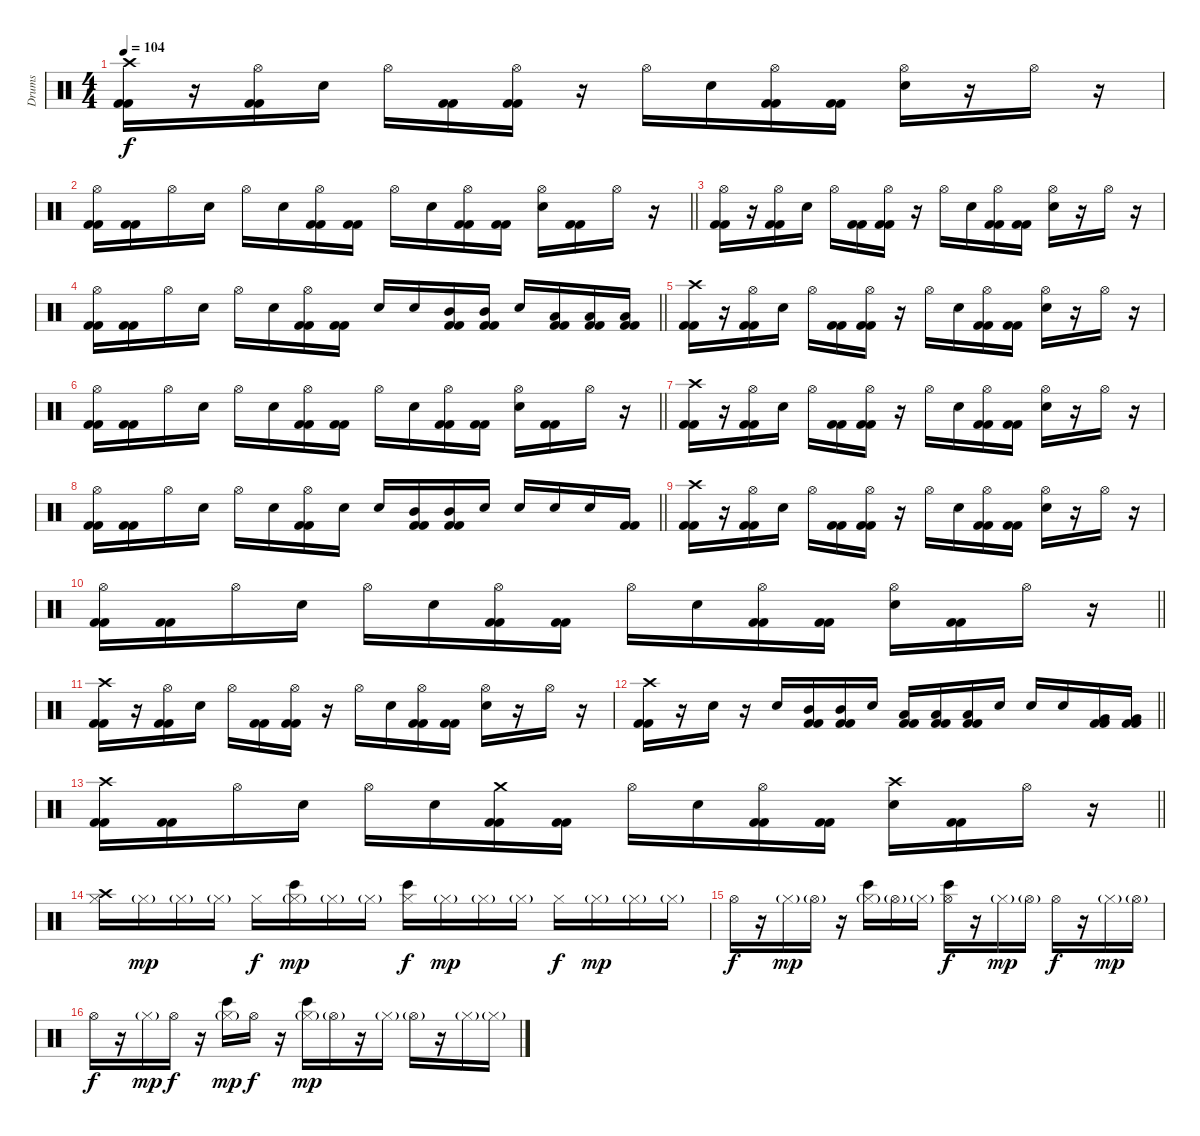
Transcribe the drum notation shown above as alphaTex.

\track ("Drums" "Drums") {instrument percussion}
\staff {score}
\articulation defaults
\ts (4 4)
\tempo 104
\clef neutral
\ks c
("Crash high (hit)" "Kick (hit) 2" "Kick (hit) 2").16{dy f} r.16 ("Hi-Hat (open)" "Kick (hit) 2" "Kick (hit) 2").16 "Snare (hit) 2".16 "Hi-Hat (open)".16 ("Kick (hit) 2" "Kick (hit) 2").16 ("Hi-Hat (open)" "Kick (hit) 2" "Kick (hit) 2").16 r.16 "Hi-Hat (open)".16 "Snare (hit) 2".16 ("Hi-Hat (open)" "Kick (hit) 2" "Kick (hit) 2").16 ("Kick (hit) 2" "Kick (hit) 2").16 ("Hi-Hat (open)" "Snare (hit) 2").16 r.16 "Hi-Hat (open)".16 r.16 |
\barLineRight lightlight
("Hi-Hat (open)" "Kick (hit) 2" "Kick (hit) 2").16 ("Kick (hit) 2" "Kick (hit) 2").16 "Hi-Hat (open)".16 "Snare (hit) 2".16 "Hi-Hat (open)".16 "Snare (hit) 2".16 ("Hi-Hat (open)" "Kick (hit) 2" "Kick (hit) 2").16 ("Kick (hit) 2" "Kick (hit) 2").16 "Hi-Hat (open)".16 "Snare (hit) 2".16 ("Hi-Hat (open)" "Kick (hit) 2" "Kick (hit) 2").16 ("Kick (hit) 2" "Kick (hit) 2").16 ("Hi-Hat (open)" "Snare (hit) 2").16 ("Kick (hit) 2" "Kick (hit) 2").16 "Hi-Hat (open)".16 r.16 |
("Hi-Hat (open)" "Kick (hit) 2" "Kick (hit) 2").16 r.16 ("Hi-Hat (open)" "Kick (hit) 2" "Kick (hit) 2").16 "Snare (hit) 2".16 "Hi-Hat (open)".16 ("Kick (hit) 2" "Kick (hit) 2").16 ("Hi-Hat (open)" "Kick (hit) 2" "Kick (hit) 2").16 r.16 "Hi-Hat (open)".16 "Snare (hit) 2".16 ("Hi-Hat (open)" "Kick (hit) 2" "Kick (hit) 2").16 ("Kick (hit) 2" "Kick (hit) 2").16 ("Hi-Hat (open)" "Snare (hit) 2").16 r.16 "Hi-Hat (open)".16 r.16 |
\barLineRight lightlight
("Hi-Hat (open)" "Kick (hit) 2" "Kick (hit) 2").16 ("Kick (hit) 2" "Kick (hit) 2").16 "Hi-Hat (open)".16 "Snare (hit) 2".16 "Hi-Hat (open)".16 "Snare (hit) 2".16 ("Hi-Hat (open)" "Kick (hit) 2" "Kick (hit) 2").16 ("Kick (hit) 2" "Kick (hit) 2").16 "Snare (hit) 2".16 "Snare (hit) 2".16 ("Mid Tom (hit)" "Kick (hit) 2" "Kick (hit) 2").16 ("Mid Tom (hit)" "Kick (hit) 2" "Kick (hit) 2").16 "Snare (hit) 2".16 ("Low Tom (hit)" "Kick (hit) 2" "Kick (hit) 2").16 ("Low Tom (hit)" "Kick (hit) 2" "Kick (hit) 2").16 ("Low Tom (hit)" "Kick (hit) 2" "Kick (hit) 2").16 |
("Crash high (hit)" "Kick (hit) 2" "Kick (hit) 2").16 r.16 ("Hi-Hat (open)" "Kick (hit) 2" "Kick (hit) 2").16 "Snare (hit) 2".16 "Hi-Hat (open)".16 ("Kick (hit) 2" "Kick (hit) 2").16 ("Hi-Hat (open)" "Kick (hit) 2" "Kick (hit) 2").16 r.16 "Hi-Hat (open)".16 "Snare (hit) 2".16 ("Hi-Hat (open)" "Kick (hit) 2" "Kick (hit) 2").16 ("Kick (hit) 2" "Kick (hit) 2").16 ("Hi-Hat (open)" "Snare (hit) 2").16 r.16 "Hi-Hat (open)".16 r.16 |
\barLineRight lightlight
("Hi-Hat (open)" "Kick (hit) 2" "Kick (hit) 2").16 ("Kick (hit) 2" "Kick (hit) 2").16 "Hi-Hat (open)".16 "Snare (hit) 2".16 "Hi-Hat (open)".16 "Snare (hit) 2".16 ("Hi-Hat (open)" "Kick (hit) 2" "Kick (hit) 2").16 ("Kick (hit) 2" "Kick (hit) 2").16 "Hi-Hat (open)".16 "Snare (hit) 2".16 ("Hi-Hat (open)" "Kick (hit) 2" "Kick (hit) 2").16 ("Kick (hit) 2" "Kick (hit) 2").16 ("Hi-Hat (open)" "Snare (hit) 2").16 ("Kick (hit) 2" "Kick (hit) 2").16 "Hi-Hat (open)".16 r.16 |
("Crash high (hit)" "Kick (hit) 2" "Kick (hit) 2").16 r.16 ("Hi-Hat (open)" "Kick (hit) 2" "Kick (hit) 2").16 "Snare (hit) 2".16 "Hi-Hat (open)".16 ("Kick (hit) 2" "Kick (hit) 2").16 ("Hi-Hat (open)" "Kick (hit) 2" "Kick (hit) 2").16 r.16 "Hi-Hat (open)".16 "Snare (hit) 2".16 ("Hi-Hat (open)" "Kick (hit) 2" "Kick (hit) 2").16 ("Kick (hit) 2" "Kick (hit) 2").16 ("Hi-Hat (open)" "Snare (hit) 2").16 r.16 "Hi-Hat (open)".16 r.16 |
\barLineRight lightlight
("Hi-Hat (open)" "Kick (hit) 2" "Kick (hit) 2").16 ("Kick (hit) 2" "Kick (hit) 2").16 "Hi-Hat (open)".16 "Snare (hit) 2".16 "Hi-Hat (open)".16 "Snare (hit) 2".16 ("Hi-Hat (open)" "Kick (hit) 2" "Kick (hit) 2").16 "Snare (hit) 2".16 "Snare (hit) 2".16 ("Mid Tom (hit)" "Kick (hit) 2" "Kick (hit) 2").16 ("Mid Tom (hit)" "Kick (hit) 2" "Kick (hit) 2").16 "Snare (hit) 2".16 "Snare (hit) 2".16 "Snare (hit) 2".16 "Snare (hit) 2".16 ("Kick (hit) 2" "Kick (hit) 2").16 |
("Crash high (hit)" "Kick (hit) 2" "Kick (hit) 2").16 r.16 ("Hi-Hat (open)" "Kick (hit) 2" "Kick (hit) 2").16 "Snare (hit) 2".16 "Hi-Hat (open)".16 ("Kick (hit) 2" "Kick (hit) 2").16 ("Hi-Hat (open)" "Kick (hit) 2" "Kick (hit) 2").16 r.16 "Hi-Hat (open)".16 "Snare (hit) 2".16 ("Hi-Hat (open)" "Kick (hit) 2" "Kick (hit) 2").16 ("Kick (hit) 2" "Kick (hit) 2").16 ("Hi-Hat (open)" "Snare (hit) 2").16 r.16 "Hi-Hat (open)".16 r.16 |
\barLineRight lightlight
("Hi-Hat (open)" "Kick (hit) 2" "Kick (hit) 2").16 ("Kick (hit) 2" "Kick (hit) 2").16 "Hi-Hat (open)".16 "Snare (hit) 2".16 "Hi-Hat (open)".16 "Snare (hit) 2".16 ("Hi-Hat (open)" "Kick (hit) 2" "Kick (hit) 2").16 ("Kick (hit) 2" "Kick (hit) 2").16 "Hi-Hat (open)".16 "Snare (hit) 2".16 ("Hi-Hat (open)" "Kick (hit) 2" "Kick (hit) 2").16 ("Kick (hit) 2" "Kick (hit) 2").16 ("Hi-Hat (open)" "Snare (hit) 2").16 ("Kick (hit) 2" "Kick (hit) 2").16 "Hi-Hat (open)".16 r.16 |
("Crash high (hit)" "Kick (hit) 2" "Kick (hit) 2").16 r.16 ("Hi-Hat (open)" "Kick (hit) 2" "Kick (hit) 2").16 "Snare (hit) 2".16 "Hi-Hat (open)".16 ("Kick (hit) 2" "Kick (hit) 2").16 ("Hi-Hat (open)" "Kick (hit) 2" "Kick (hit) 2").16 r.16 "Hi-Hat (open)".16 "Snare (hit) 2".16 ("Hi-Hat (open)" "Kick (hit) 2" "Kick (hit) 2").16 ("Kick (hit) 2" "Kick (hit) 2").16 ("Hi-Hat (open)" "Snare (hit) 2").16 r.16 "Hi-Hat (open)".16 r.16 |
\barLineRight lightlight
("Crash high (hit)" "Kick (hit) 2" "Kick (hit) 2").16 r.16 "Snare (hit) 2".16 r.16 "Snare (hit) 2".16 ("Mid Tom (hit)" "Kick (hit) 2" "Kick (hit) 2").16 ("Mid Tom (hit)" "Kick (hit) 2" "Kick (hit) 2").16 "Snare (hit) 2".16 ("Low Tom (hit)" "Kick (hit) 2" "Kick (hit) 2").16 ("Low Tom (hit)" "Kick (hit) 2" "Kick (hit) 2").16 ("Low Tom (hit)" "Kick (hit) 2" "Kick (hit) 2").16 "Snare (hit) 2".16 "Snare (hit) 2".16 "Snare (hit) 2".16 ("Very Low Tom (hit)" "Kick (hit) 2" "Kick (hit) 2").16 ("Very Low Tom (hit)" "Kick (hit) 2" "Kick (hit) 2").16 |
\barLineRight lightlight
("Crash high (hit)" "Kick (hit) 2" "Kick (hit) 2").16 ("Kick (hit) 2" "Kick (hit) 2").16 "Hi-Hat (open)".16 "Snare (hit) 2".16 "Hi-Hat (open)".16 "Snare (hit) 2".16 ("Crash medium (hit)" "Kick (hit) 2" "Kick (hit) 2").16 ("Kick (hit) 2" "Kick (hit) 2").16 "Hi-Hat (open)".16 "Snare (hit) 2".16 ("Hi-Hat (open)" "Kick (hit) 2" "Kick (hit) 2").16 ("Kick (hit) 2" "Kick (hit) 2").16 ("Crash high (hit)" "Snare (hit) 2").16 ("Kick (hit) 2" "Kick (hit) 2").16 "Hi-Hat (open)".16 r.16 |
\section ("" "")
("Crash high (hit)" "Hi-Hat (closed)").16 "Hi-Hat (closed)"{g}.16{dy mp} "Hi-Hat (closed)"{g}.16 "Hi-Hat (closed)"{g}.16 "Hi-Hat (closed)".16{dy f} ("Bongo High (hit)" "Hi-Hat (closed)"{g}).16{dy mp} "Hi-Hat (closed)"{g}.16 "Hi-Hat (closed)"{g}.16 ("Bongo High (hit)" "Hi-Hat (closed)").16{dy f} "Hi-Hat (closed)"{g}.16{dy mp} "Hi-Hat (closed)"{g}.16 "Hi-Hat (closed)"{g}.16 "Hi-Hat (closed)".16{dy f} "Hi-Hat (closed)"{g}.16{dy mp} "Hi-Hat (closed)"{g}.16 "Hi-Hat (closed)"{g}.16 |
"Hi-Hat (open)".16{dy f} r.16 "Hi-Hat (closed)"{g}.16{dy mp} "Hi-Hat (open)"{g}.16 r.16 ("Bongo High (hit)" "Hi-Hat (closed)"{g}).16 "Hi-Hat (open)"{g}.16 "Hi-Hat (closed)"{g}.16 ("Bongo High (hit)" "Hi-Hat (open)").16{dy f} r.16 "Hi-Hat (closed)"{g}.16{dy mp} "Hi-Hat (open)"{g}.16 "Hi-Hat (open)".16{dy f} r.16 "Hi-Hat (closed)"{g}.16{dy mp} "Hi-Hat (open)"{g}.16 |
"Hi-Hat (open)".16{dy f} r.16 "Hi-Hat (closed)"{g}.16{dy mp} "Hi-Hat (open)".16{dy f} r.16 ("Bongo High (hit)" "Hi-Hat (closed)"{g}).16{dy mp} "Hi-Hat (open)".16{dy f} r.16 ("Bongo High (hit)" "Hi-Hat (closed)"{g}).16{dy mp} "Hi-Hat (open)"{g}.16 r.16 "Hi-Hat (closed)"{g}.16 "Hi-Hat (open)"{g}.16 r.16 "Hi-Hat (closed)"{g}.16 "Hi-Hat (closed)"{g}.16
